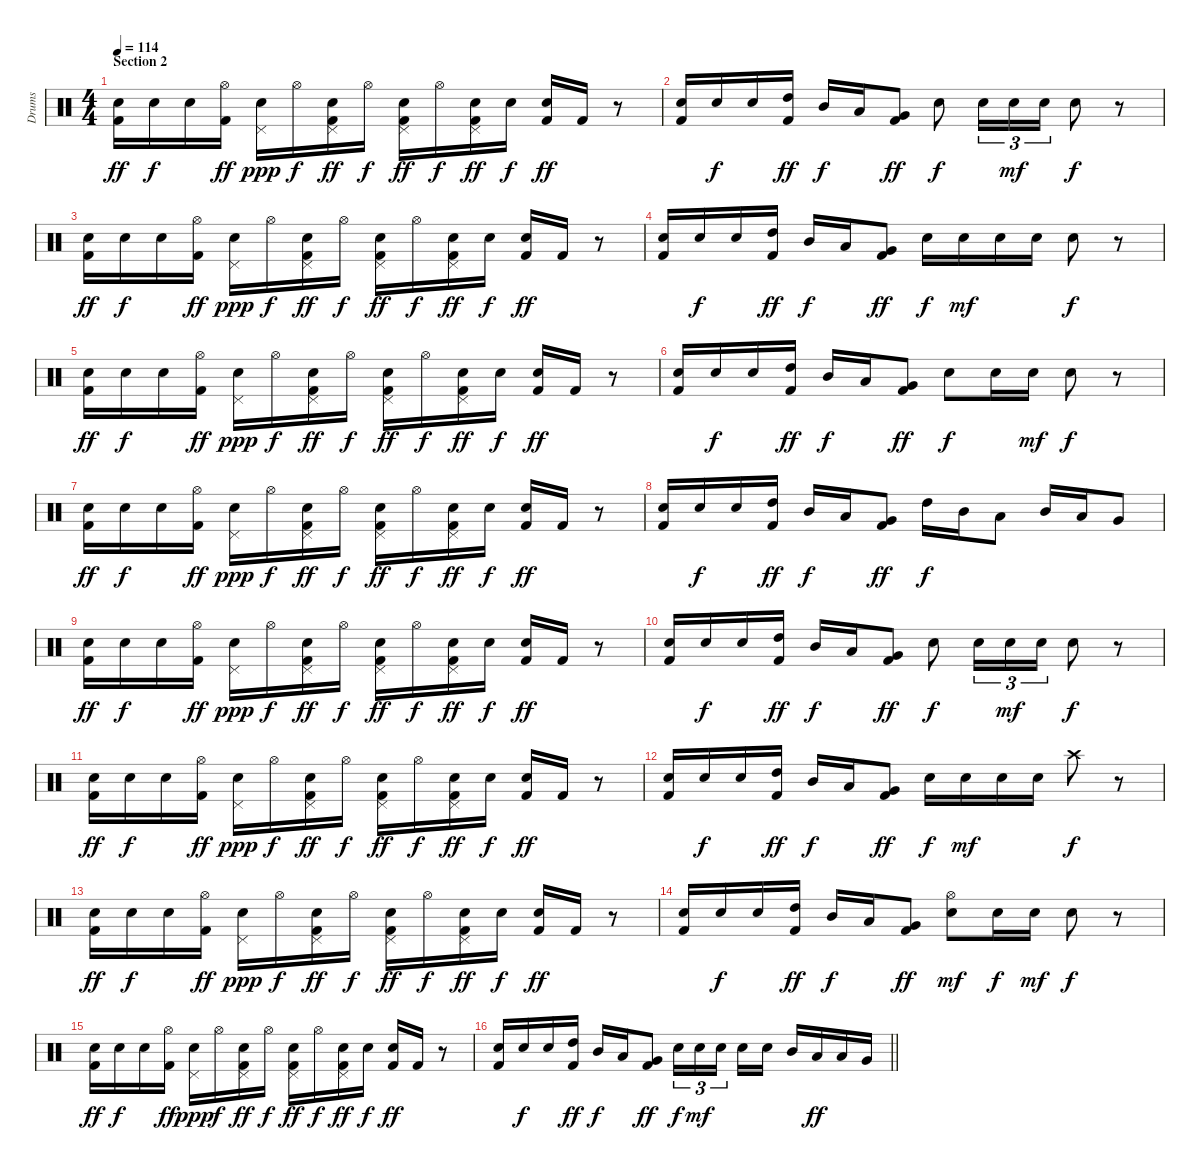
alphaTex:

\track ("Drums" "Drums") {instrument percussion}
\staff {score}
\articulation defaults
\ts (4 4)
\section ("" "Section 2")
\tempo 114
\clef neutral
\ks c
("Snare (hit) 2" "Kick (hit) 2").16{dy ff} "Electric Snare (hit)".16{dy f} "Electric Snare (hit)".16 ("Hi-Hat (open)" "Kick (hit) 2").16{dy ff} ("Pedal Hi-Hat (hit)" "Electric Snare (hit)").16{dy ppp} "Hi-Hat (open)".16{dy f} ("Pedal Hi-Hat (hit)" "Electric Snare (hit)" "Kick (hit) 2").16{dy ff} "Hi-Hat (open)".16{dy f} ("Pedal Hi-Hat (hit)" "Electric Snare (hit)" "Kick (hit) 2").16{dy ff} "Hi-Hat (open)".16{dy f} ("Pedal Hi-Hat (hit)" "Electric Snare (hit)" "Kick (hit) 2").16{dy ff} "Snare (hit) 2".16{dy f} ("Electric Snare (hit)" "Kick (hit) 2").16{dy ff} "Kick (hit) 2".16 r.8 |
("Snare (hit) 2" "Kick (hit) 2").16 "Electric Snare (hit)".16{dy f} "Electric Snare (hit)".16 ("High Tom (hit)" "Kick (hit) 2").16{dy ff} "Mid Tom (hit)".16{dy f} "Low Tom (hit)".16 ("Very Low Tom (hit)" "Kick (hit) 2").8{dy ff} "Electric Snare (hit)".8{dy f} "Snare (hit) 2".16{tu (3 2)} "Snare (hit) 2".16{tu (3 2) dy mf} "Snare (hit) 2".16{tu (3 2)} "Electric Snare (hit)".8{dy f} r.8 |
("Snare (hit) 2" "Kick (hit) 2").16{dy ff} "Electric Snare (hit)".16{dy f} "Electric Snare (hit)".16 ("Hi-Hat (open)" "Kick (hit) 2").16{dy ff} ("Pedal Hi-Hat (hit)" "Electric Snare (hit)").16{dy ppp} "Hi-Hat (open)".16{dy f} ("Pedal Hi-Hat (hit)" "Electric Snare (hit)" "Kick (hit) 2").16{dy ff} "Hi-Hat (open)".16{dy f} ("Pedal Hi-Hat (hit)" "Electric Snare (hit)" "Kick (hit) 2").16{dy ff} "Hi-Hat (open)".16{dy f} ("Pedal Hi-Hat (hit)" "Electric Snare (hit)" "Kick (hit) 2").16{dy ff} "Snare (hit) 2".16{dy f} ("Electric Snare (hit)" "Kick (hit) 2").16{dy ff} "Kick (hit) 2".16 r.8 |
("Snare (hit) 2" "Kick (hit) 2").16 "Electric Snare (hit)".16{dy f} "Electric Snare (hit)".16 ("High Tom (hit)" "Kick (hit) 2").16{dy ff} "Mid Tom (hit)".16{dy f} "Low Tom (hit)".16 ("Very Low Tom (hit)" "Kick (hit) 2").8{dy ff} "Electric Snare (hit)".16{dy f} "Electric Snare (hit)".16{dy mf} "Electric Snare (hit)".16 "Electric Snare (hit)".16 "Electric Snare (hit)".8{dy f} r.8 |
("Snare (hit) 2" "Kick (hit) 2").16{dy ff} "Electric Snare (hit)".16{dy f} "Electric Snare (hit)".16 ("Hi-Hat (open)" "Kick (hit) 2").16{dy ff} ("Pedal Hi-Hat (hit)" "Electric Snare (hit)").16{dy ppp} "Hi-Hat (open)".16{dy f} ("Pedal Hi-Hat (hit)" "Electric Snare (hit)" "Kick (hit) 2").16{dy ff} "Hi-Hat (open)".16{dy f} ("Pedal Hi-Hat (hit)" "Electric Snare (hit)" "Kick (hit) 2").16{dy ff} "Hi-Hat (open)".16{dy f} ("Pedal Hi-Hat (hit)" "Electric Snare (hit)" "Kick (hit) 2").16{dy ff} "Snare (hit) 2".16{dy f} ("Electric Snare (hit)" "Kick (hit) 2").16{dy ff} "Kick (hit) 2".16 r.8 |
("Snare (hit) 2" "Kick (hit) 2").16 "Electric Snare (hit)".16{dy f} "Electric Snare (hit)".16 ("High Tom (hit)" "Kick (hit) 2").16{dy ff} "Mid Tom (hit)".16{dy f} "Low Tom (hit)".16 ("Very Low Tom (hit)" "Kick (hit) 2").8{dy ff} "Electric Snare (hit)".8{dy f} "Snare (hit) 2".16 "Snare (hit) 2".16{dy mf} "Electric Snare (hit)".8{dy f} r.8 |
("Snare (hit) 2" "Kick (hit) 2").16{dy ff} "Electric Snare (hit)".16{dy f} "Electric Snare (hit)".16 ("Hi-Hat (open)" "Kick (hit) 2").16{dy ff} ("Pedal Hi-Hat (hit)" "Electric Snare (hit)").16{dy ppp} "Hi-Hat (open)".16{dy f} ("Pedal Hi-Hat (hit)" "Electric Snare (hit)" "Kick (hit) 2").16{dy ff} "Hi-Hat (open)".16{dy f} ("Pedal Hi-Hat (hit)" "Electric Snare (hit)" "Kick (hit) 2").16{dy ff} "Hi-Hat (open)".16{dy f} ("Pedal Hi-Hat (hit)" "Electric Snare (hit)" "Kick (hit) 2").16{dy ff} "Snare (hit) 2".16{dy f} ("Electric Snare (hit)" "Kick (hit) 2").16{dy ff} "Kick (hit) 2".16 r.8 |
("Snare (hit) 2" "Kick (hit) 2").16 "Electric Snare (hit)".16{dy f} "Electric Snare (hit)".16 ("High Tom (hit)" "Kick (hit) 2").16{dy ff} "Mid Tom (hit)".16{dy f} "Low Tom (hit)".16 ("Very Low Tom (hit)" "Kick (hit) 2").8{dy ff} "High Tom (hit)".16{dy f} "Mid Tom (hit)".16 "Low Tom (hit)".8 "Mid Tom (hit)".16 "Low Tom (hit)".16 "Very Low Tom (hit)".8 |
("Snare (hit) 2" "Kick (hit) 2").16{dy ff} "Electric Snare (hit)".16{dy f} "Electric Snare (hit)".16 ("Hi-Hat (open)" "Kick (hit) 2").16{dy ff} ("Pedal Hi-Hat (hit)" "Electric Snare (hit)").16{dy ppp} "Hi-Hat (open)".16{dy f} ("Pedal Hi-Hat (hit)" "Electric Snare (hit)" "Kick (hit) 2").16{dy ff} "Hi-Hat (open)".16{dy f} ("Pedal Hi-Hat (hit)" "Electric Snare (hit)" "Kick (hit) 2").16{dy ff} "Hi-Hat (open)".16{dy f} ("Pedal Hi-Hat (hit)" "Electric Snare (hit)" "Kick (hit) 2").16{dy ff} "Snare (hit) 2".16{dy f} ("Electric Snare (hit)" "Kick (hit) 2").16{dy ff} "Kick (hit) 2".16 r.8 |
("Snare (hit) 2" "Kick (hit) 2").16 "Electric Snare (hit)".16{dy f} "Electric Snare (hit)".16 ("High Tom (hit)" "Kick (hit) 2").16{dy ff} "Mid Tom (hit)".16{dy f} "Low Tom (hit)".16 ("Very Low Tom (hit)" "Kick (hit) 2").8{dy ff} "Electric Snare (hit)".8{dy f} "Snare (hit) 2".16{tu (3 2)} "Snare (hit) 2".16{tu (3 2) dy mf} "Snare (hit) 2".16{tu (3 2)} "Electric Snare (hit)".8{dy f} r.8 |
("Snare (hit) 2" "Kick (hit) 2").16{dy ff} "Electric Snare (hit)".16{dy f} "Electric Snare (hit)".16 ("Hi-Hat (open)" "Kick (hit) 2").16{dy ff} ("Pedal Hi-Hat (hit)" "Electric Snare (hit)").16{dy ppp} "Hi-Hat (open)".16{dy f} ("Pedal Hi-Hat (hit)" "Electric Snare (hit)" "Kick (hit) 2").16{dy ff} "Hi-Hat (open)".16{dy f} ("Pedal Hi-Hat (hit)" "Electric Snare (hit)" "Kick (hit) 2").16{dy ff} "Hi-Hat (open)".16{dy f} ("Pedal Hi-Hat (hit)" "Electric Snare (hit)" "Kick (hit) 2").16{dy ff} "Snare (hit) 2".16{dy f} ("Electric Snare (hit)" "Kick (hit) 2").16{dy ff} "Kick (hit) 2".16 r.8 |
("Snare (hit) 2" "Kick (hit) 2").16 "Electric Snare (hit)".16{dy f} "Electric Snare (hit)".16 ("High Tom (hit)" "Kick (hit) 2").16{dy ff} "Mid Tom (hit)".16{dy f} "Low Tom (hit)".16 ("Very Low Tom (hit)" "Kick (hit) 2").8{dy ff} "Electric Snare (hit)".16{dy f} "Electric Snare (hit)".16{dy mf} "Electric Snare (hit)".16 "Electric Snare (hit)".16 "Crash high (hit)".8{dy f} r.8 |
("Snare (hit) 2" "Kick (hit) 2").16{dy ff} "Electric Snare (hit)".16{dy f} "Electric Snare (hit)".16 ("Hi-Hat (open)" "Kick (hit) 2").16{dy ff} ("Pedal Hi-Hat (hit)" "Electric Snare (hit)").16{dy ppp} "Hi-Hat (open)".16{dy f} ("Pedal Hi-Hat (hit)" "Electric Snare (hit)" "Kick (hit) 2").16{dy ff} "Hi-Hat (open)".16{dy f} ("Pedal Hi-Hat (hit)" "Electric Snare (hit)" "Kick (hit) 2").16{dy ff} "Hi-Hat (open)".16{dy f} ("Pedal Hi-Hat (hit)" "Electric Snare (hit)" "Kick (hit) 2").16{dy ff} "Snare (hit) 2".16{dy f} ("Electric Snare (hit)" "Kick (hit) 2").16{dy ff} "Kick (hit) 2".16 r.8 |
("Snare (hit) 2" "Kick (hit) 2").16 "Electric Snare (hit)".16{dy f} "Electric Snare (hit)".16 ("High Tom (hit)" "Kick (hit) 2").16{dy ff} "Mid Tom (hit)".16{dy f} "Low Tom (hit)".16 ("Very Low Tom (hit)" "Kick (hit) 2").8{dy ff} ("Hi-Hat (open)" "Electric Snare (hit)").8{dy mf} "Snare (hit) 2".16{dy f} "Snare (hit) 2".16{dy mf} "Electric Snare (hit)".8{dy f} r.8 |
("Snare (hit) 2" "Kick (hit) 2").16{dy ff} "Electric Snare (hit)".16{dy f} "Electric Snare (hit)".16 ("Hi-Hat (open)" "Kick (hit) 2").16{dy ff} ("Pedal Hi-Hat (hit)" "Electric Snare (hit)").16{dy ppp} "Hi-Hat (open)".16{dy f} ("Pedal Hi-Hat (hit)" "Electric Snare (hit)" "Kick (hit) 2").16{dy ff} "Hi-Hat (open)".16{dy f} ("Pedal Hi-Hat (hit)" "Electric Snare (hit)" "Kick (hit) 2").16{dy ff} "Hi-Hat (open)".16{dy f} ("Pedal Hi-Hat (hit)" "Electric Snare (hit)" "Kick (hit) 2").16{dy ff} "Snare (hit) 2".16{dy f} ("Electric Snare (hit)" "Kick (hit) 2").16{dy ff} "Kick (hit) 2".16 r.8 |
\barLineRight lightlight
("Snare (hit) 2" "Kick (hit) 2").16 "Electric Snare (hit)".16{dy f} "Electric Snare (hit)".16 ("High Tom (hit)" "Kick (hit) 2").16{dy ff} "Mid Tom (hit)".16{dy f} "Low Tom (hit)".16 ("Very Low Tom (hit)" "Kick (hit) 2").8{dy ff} "Snare (hit) 2".16{tu (3 2) dy f} "Snare (hit) 2".16{tu (3 2) dy mf} "Snare (hit) 2".16{tu (3 2) beam splitsecondary} "Snare (hit) 2".16 "Snare (hit) 2".16 "Mid Tom (hit)".16 "Low Tom (hit)".16{dy ff} "Low Tom (hit)".16 "Very Low Tom (hit)".16
